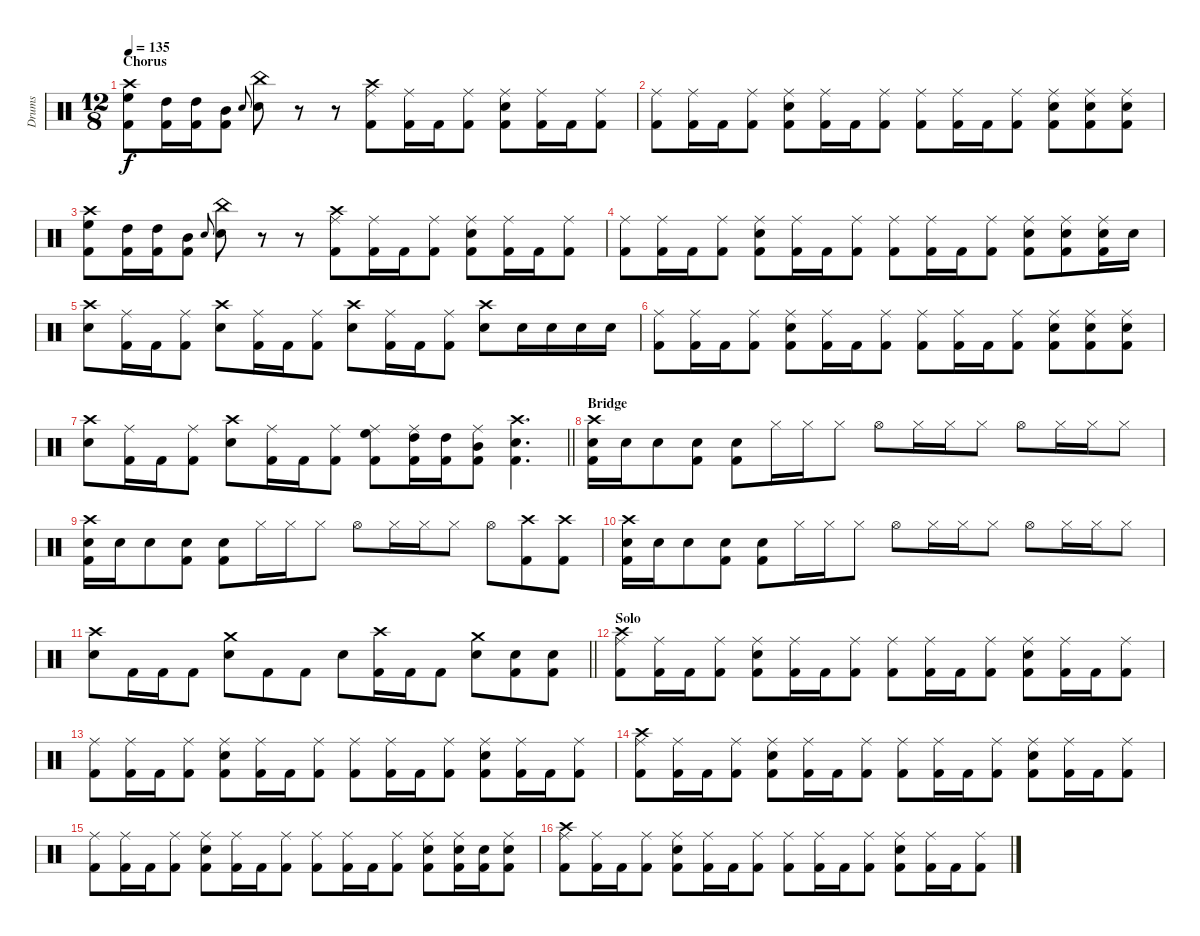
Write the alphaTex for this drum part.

\track ("Drums" "Drums") {instrument percussion}
\staff {score}
\articulation defaults
\ts (12 8)
\section ("" "Chorus")
\tempo 135
\clef neutral
\ks c
("Crash high (hit)" "High Floor Tom (hit)" "Kick (hit) 2").8{dy f} ("High Tom (hit)" "Kick (hit) 2").16 ("High Tom (hit)" "Kick (hit) 2").16 ("Mid Tom (hit)" "Kick (hit) 2").8 "Snare (hit) 2".8{gr onbeat} ("China (hit)" "Snare (hit) 2").8 r.8 r.8 ("Crash high (hit)" "Ride (middle)" "Kick (hit) 2").8 ("Ride (middle)" "Kick (hit) 2").16 "Kick (hit) 2".16 ("Ride (middle)" "Kick (hit) 2").8 ("Ride (middle)" "Snare (hit) 2" "Kick (hit) 2").8 ("Ride (middle)" "Kick (hit) 2").16 "Kick (hit) 2".16 ("Ride (middle)" "Kick (hit) 2").8 |
("Ride (middle)" "Kick (hit) 2").8 ("Ride (middle)" "Kick (hit) 2").16 "Kick (hit) 2".16 ("Ride (middle)" "Kick (hit) 2").8 ("Ride (middle)" "Snare (hit) 2" "Kick (hit) 2").8 ("Ride (middle)" "Kick (hit) 2").16 "Kick (hit) 2".16 ("Ride (middle)" "Kick (hit) 2").8 ("Ride (middle)" "Kick (hit) 2").8 ("Ride (middle)" "Kick (hit) 2").16 "Kick (hit) 2".16 ("Ride (middle)" "Kick (hit) 2").8 ("Ride (middle)" "Snare (hit) 2" "Kick (hit) 2").8 ("Ride (middle)" "Snare (hit) 2" "Kick (hit) 2").8 ("Ride (middle)" "Snare (hit) 2" "Kick (hit) 2").8 |
("Crash high (hit)" "High Floor Tom (hit)" "Kick (hit) 2").8 ("High Tom (hit)" "Kick (hit) 2").16 ("High Tom (hit)" "Kick (hit) 2").16 ("Mid Tom (hit)" "Kick (hit) 2").8 "Snare (hit) 2".8{gr onbeat} ("China (hit)" "Snare (hit) 2").8 r.8 r.8 ("Crash high (hit)" "Ride (middle)" "Kick (hit) 2").8 ("Ride (middle)" "Kick (hit) 2").16 "Kick (hit) 2".16 ("Ride (middle)" "Kick (hit) 2").8 ("Ride (middle)" "Snare (hit) 2" "Kick (hit) 2").8 ("Ride (middle)" "Kick (hit) 2").16 "Kick (hit) 2".16 ("Ride (middle)" "Kick (hit) 2").8 |
("Ride (middle)" "Kick (hit) 2").8 ("Ride (middle)" "Kick (hit) 2").16 "Kick (hit) 2".16 ("Ride (middle)" "Kick (hit) 2").8 ("Ride (middle)" "Snare (hit) 2" "Kick (hit) 2").8 ("Ride (middle)" "Kick (hit) 2").16 "Kick (hit) 2".16 ("Ride (middle)" "Kick (hit) 2").8 ("Ride (middle)" "Kick (hit) 2").8 ("Ride (middle)" "Kick (hit) 2").16 "Kick (hit) 2".16 ("Ride (middle)" "Kick (hit) 2").8 ("Ride (middle)" "Snare (hit) 2" "Kick (hit) 2").8 ("Ride (middle)" "Snare (hit) 2" "Kick (hit) 2").8 ("Ride (middle)" "Snare (hit) 2" "Kick (hit) 2").16 "Snare (hit) 2".16 |
("Crash high (hit)" "Snare (hit) 2").8 ("Ride (middle)" "Kick (hit) 2").16 "Kick (hit) 2".16 ("Ride (middle)" "Kick (hit) 2").8 ("Crash high (hit)" "Snare (hit) 2").8 ("Ride (middle)" "Kick (hit) 2").16 "Kick (hit) 2".16 ("Ride (middle)" "Kick (hit) 2").8 ("Crash high (hit)" "Snare (hit) 2").8 ("Ride (middle)" "Kick (hit) 2").16 "Kick (hit) 2".16 ("Ride (middle)" "Kick (hit) 2").8 ("Crash high (hit)" "Snare (hit) 2").8 "Snare (hit) 2".16 "Snare (hit) 2".16 "Snare (hit) 2".16 "Snare (hit) 2".16 |
("Ride (middle)" "Kick (hit) 2").8 ("Ride (middle)" "Kick (hit) 2").16 "Kick (hit) 2".16 ("Ride (middle)" "Kick (hit) 2").8 ("Ride (middle)" "Snare (hit) 2" "Kick (hit) 2").8 ("Ride (middle)" "Kick (hit) 2").16 "Kick (hit) 2".16 ("Ride (middle)" "Kick (hit) 2").8 ("Ride (middle)" "Kick (hit) 2").8 ("Ride (middle)" "Kick (hit) 2").16 "Kick (hit) 2".16 ("Ride (middle)" "Kick (hit) 2").8 ("Ride (middle)" "Snare (hit) 2" "Kick (hit) 2").8 ("Ride (middle)" "Snare (hit) 2" "Kick (hit) 2").8 ("Ride (middle)" "Snare (hit) 2" "Kick (hit) 2").8 |
\barLineRight lightlight
("Crash high (hit)" "Snare (hit) 2").8 ("Ride (middle)" "Kick (hit) 2").16 "Kick (hit) 2".16 ("Ride (middle)" "Kick (hit) 2").8 ("Crash high (hit)" "Snare (hit) 2").8 ("Ride (middle)" "Kick (hit) 2").16 "Kick (hit) 2".16 ("Ride (middle)" "Kick (hit) 2").8 ("Ride (middle)" "High Floor Tom (hit)" "Kick (hit) 2").8 ("Ride (middle)" "High Tom (hit)" "Kick (hit) 2").16 ("High Tom (hit)" "Kick (hit) 2").16 ("Ride (middle)" "Mid Tom (hit)" "Kick (hit) 2").8 ("Crash high (hit)" "Snare (hit) 2" "Kick (hit) 2").4{d} |
\section ("" "Bridge")
("Crash high (hit)" "Snare (hit) 2" "Kick (hit) 2").16 "Snare (hit) 2".16 "Snare (hit) 2".8 ("Snare (hit) 2" "Kick (hit) 2").8 ("Snare (hit) 2" "Kick (hit) 2").8 "Hi-Hat (closed)".16 "Hi-Hat (closed)".16 "Hi-Hat (closed)".8 "Hi-Hat (open)".8 "Hi-Hat (closed)".16 "Hi-Hat (closed)".16 "Hi-Hat (closed)".8 "Hi-Hat (open)".8 "Hi-Hat (closed)".16 "Hi-Hat (closed)".16 "Hi-Hat (closed)".8 |
("Crash high (hit)" "Snare (hit) 2" "Kick (hit) 2").16 "Snare (hit) 2".16 "Snare (hit) 2".8 ("Snare (hit) 2" "Kick (hit) 2").8 ("Snare (hit) 2" "Kick (hit) 2").8 "Hi-Hat (closed)".16 "Hi-Hat (closed)".16 "Hi-Hat (closed)".8 "Hi-Hat (open)".8 "Hi-Hat (closed)".16 "Hi-Hat (closed)".16 "Hi-Hat (closed)".8 "Hi-Hat (open)".8 ("Crash high (hit)" "Kick (hit) 2").8 ("Crash high (hit)" "Kick (hit) 2").8 |
("Crash high (hit)" "Snare (hit) 2" "Kick (hit) 2").16 "Snare (hit) 2".16 "Snare (hit) 2".8 ("Snare (hit) 2" "Kick (hit) 2").8 ("Snare (hit) 2" "Kick (hit) 2").8 "Hi-Hat (closed)".16 "Hi-Hat (closed)".16 "Hi-Hat (closed)".8 "Hi-Hat (open)".8 "Hi-Hat (closed)".16 "Hi-Hat (closed)".16 "Hi-Hat (closed)".8 "Hi-Hat (open)".8 "Hi-Hat (closed)".16 "Hi-Hat (closed)".16 "Hi-Hat (closed)".8 |
\barLineRight lightlight
("Crash high (hit)" "Snare (hit) 2").8 "Kick (hit) 2".16 "Kick (hit) 2".16 "Kick (hit) 2".8 ("Crash medium (hit)" "Snare (hit) 2").8 "Kick (hit) 2".8 "Kick (hit) 2".8 "Snare (hit) 2".8 ("Crash high (hit)" "Kick (hit) 2").16 "Kick (hit) 2".16 "Kick (hit) 2".8 ("Crash medium (hit)" "Snare (hit) 2").8 ("Snare (hit) 2" "Kick (hit) 2").8 ("Snare (hit) 2" "Kick (hit) 2").8 |
\section ("" "Solo")
("Crash high (hit)" "Ride (middle)" "Kick (hit) 2").8 ("Ride (middle)" "Kick (hit) 2").16 "Kick (hit) 2".16 ("Ride (middle)" "Kick (hit) 2").8 ("Ride (middle)" "Snare (hit) 2" "Kick (hit) 2").8 ("Ride (middle)" "Kick (hit) 2").16 "Kick (hit) 2".16 ("Ride (middle)" "Kick (hit) 2").8 ("Ride (middle)" "Kick (hit) 2").8 ("Ride (middle)" "Kick (hit) 2").16 "Kick (hit) 2".16 ("Ride (middle)" "Kick (hit) 2").8 ("Ride (middle)" "Snare (hit) 2" "Kick (hit) 2").8 ("Ride (middle)" "Kick (hit) 2").16 "Kick (hit) 2".16 ("Ride (middle)" "Kick (hit) 2").8 |
("Ride (middle)" "Kick (hit) 2").8 ("Ride (middle)" "Kick (hit) 2").16 "Kick (hit) 2".16 ("Ride (middle)" "Kick (hit) 2").8 ("Ride (middle)" "Snare (hit) 2" "Kick (hit) 2").8 ("Ride (middle)" "Kick (hit) 2").16 "Kick (hit) 2".16 ("Ride (middle)" "Kick (hit) 2").8 ("Ride (middle)" "Kick (hit) 2").8 ("Ride (middle)" "Kick (hit) 2").16 "Kick (hit) 2".16 ("Ride (middle)" "Kick (hit) 2").8 ("Ride (middle)" "Snare (hit) 2" "Kick (hit) 2").8 ("Ride (middle)" "Kick (hit) 2").16 "Kick (hit) 2".16 ("Ride (middle)" "Kick (hit) 2").8 |
("Crash high (hit)" "Ride (middle)" "Kick (hit) 2").8 ("Ride (middle)" "Kick (hit) 2").16 "Kick (hit) 2".16 ("Ride (middle)" "Kick (hit) 2").8 ("Ride (middle)" "Snare (hit) 2" "Kick (hit) 2").8 ("Ride (middle)" "Kick (hit) 2").16 "Kick (hit) 2".16 ("Ride (middle)" "Kick (hit) 2").8 ("Ride (middle)" "Kick (hit) 2").8 ("Ride (middle)" "Kick (hit) 2").16 "Kick (hit) 2".16 ("Ride (middle)" "Kick (hit) 2").8 ("Ride (middle)" "Snare (hit) 2" "Kick (hit) 2").8 ("Ride (middle)" "Kick (hit) 2").16 "Kick (hit) 2".16 ("Ride (middle)" "Kick (hit) 2").8 |
("Ride (middle)" "Kick (hit) 2").8 ("Ride (middle)" "Kick (hit) 2").16 "Kick (hit) 2".16 ("Ride (middle)" "Kick (hit) 2").8 ("Ride (middle)" "Snare (hit) 2" "Kick (hit) 2").8 ("Ride (middle)" "Kick (hit) 2").16 "Kick (hit) 2".16 ("Ride (middle)" "Kick (hit) 2").8 ("Ride (middle)" "Kick (hit) 2").8 ("Ride (middle)" "Kick (hit) 2").16 "Kick (hit) 2".16 ("Ride (middle)" "Kick (hit) 2").8 ("Ride (middle)" "Snare (hit) 2" "Kick (hit) 2").8 ("Ride (middle)" "Snare (hit) 2" "Kick (hit) 2").16 ("Snare (hit) 2" "Kick (hit) 2").16 ("Ride (middle)" "Snare (hit) 2" "Kick (hit) 2").8 |
("Crash high (hit)" "Ride (middle)" "Kick (hit) 2").8 ("Ride (middle)" "Kick (hit) 2").16 "Kick (hit) 2".16 ("Ride (middle)" "Kick (hit) 2").8 ("Ride (middle)" "Snare (hit) 2" "Kick (hit) 2").8 ("Ride (middle)" "Kick (hit) 2").16 "Kick (hit) 2".16 ("Ride (middle)" "Kick (hit) 2").8 ("Ride (middle)" "Kick (hit) 2").8 ("Ride (middle)" "Kick (hit) 2").16 "Kick (hit) 2".16 ("Ride (middle)" "Kick (hit) 2").8 ("Ride (middle)" "Snare (hit) 2" "Kick (hit) 2").8 ("Ride (middle)" "Kick (hit) 2").16 "Kick (hit) 2".16 ("Ride (middle)" "Kick (hit) 2").8
